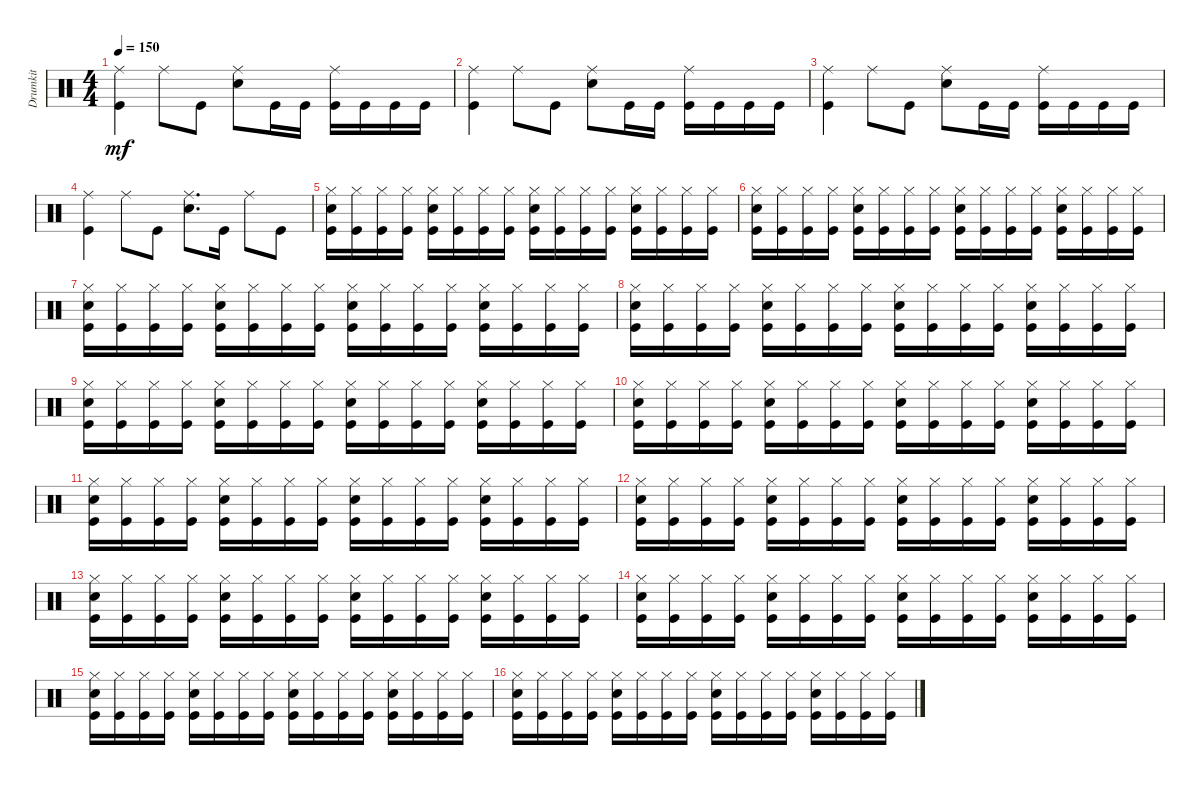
\track ("Drumkit" "Drumkit") {instrument percussion}
\staff {score}
\articulation defaults
\ts (4 4)
\tempo 150
\clef neutral
\ks c
("Ride (middle)" "Kick (hit)").4{dy mf} "Ride (middle)".8 "Kick (hit)".8 ("Ride (middle)" "Snare (hit) 2").8 "Kick (hit)".16 "Kick (hit)".16 ("Ride (middle)" "Kick (hit)").16 "Kick (hit)".16 "Kick (hit)".16 "Kick (hit)".16 |
("Ride (middle)" "Kick (hit)").4 "Ride (middle)".8 "Kick (hit)".8 ("Ride (middle)" "Snare (hit) 2").8 "Kick (hit)".16 "Kick (hit)".16 ("Ride (middle)" "Kick (hit)").16 "Kick (hit)".16 "Kick (hit)".16 "Kick (hit)".16 |
("Ride (middle)" "Kick (hit)").4 "Ride (middle)".8 "Kick (hit)".8 ("Ride (middle)" "Snare (hit) 2").8 "Kick (hit)".16 "Kick (hit)".16 ("Ride (middle)" "Kick (hit)").16 "Kick (hit)".16 "Kick (hit)".16 "Kick (hit)".16 |
("Ride (middle)" "Kick (hit)").4 "Ride (middle)".8 "Kick (hit)".8 ("Ride (middle)" "Snare (hit) 2").8{d} "Kick (hit)".16 "Ride (middle)".8 "Kick (hit)".8 |
("Kick (hit)" "Snare (hit) 2" "Hi-Hat (closed)").16 ("Kick (hit)" "Hi-Hat (closed)").16 ("Kick (hit)" "Hi-Hat (closed)").16 ("Kick (hit)" "Hi-Hat (closed)").16 ("Kick (hit)" "Snare (hit) 2" "Hi-Hat (closed)").16 ("Kick (hit)" "Hi-Hat (closed)").16 ("Kick (hit)" "Hi-Hat (closed)").16 ("Kick (hit)" "Hi-Hat (closed)").16 ("Kick (hit)" "Snare (hit) 2" "Hi-Hat (closed)").16 ("Kick (hit)" "Hi-Hat (closed)").16 ("Kick (hit)" "Hi-Hat (closed)").16 ("Kick (hit)" "Hi-Hat (closed)").16 ("Kick (hit)" "Snare (hit) 2" "Hi-Hat (closed)").16 ("Kick (hit)" "Hi-Hat (closed)").16 ("Kick (hit)" "Hi-Hat (closed)").16 ("Kick (hit)" "Hi-Hat (closed)").16 |
("Kick (hit)" "Snare (hit) 2" "Hi-Hat (closed)").16 ("Kick (hit)" "Hi-Hat (closed)").16 ("Kick (hit)" "Hi-Hat (closed)").16 ("Kick (hit)" "Hi-Hat (closed)").16 ("Kick (hit)" "Snare (hit) 2" "Hi-Hat (closed)").16 ("Kick (hit)" "Hi-Hat (closed)").16 ("Kick (hit)" "Hi-Hat (closed)").16 ("Kick (hit)" "Hi-Hat (closed)").16 ("Kick (hit)" "Snare (hit) 2" "Hi-Hat (closed)").16 ("Kick (hit)" "Hi-Hat (closed)").16 ("Kick (hit)" "Hi-Hat (closed)").16 ("Kick (hit)" "Hi-Hat (closed)").16 ("Kick (hit)" "Snare (hit) 2" "Hi-Hat (closed)").16 ("Kick (hit)" "Hi-Hat (closed)").16 ("Kick (hit)" "Hi-Hat (closed)").16 ("Kick (hit)" "Hi-Hat (closed)").16 |
("Kick (hit)" "Snare (hit) 2" "Hi-Hat (closed)").16 ("Kick (hit)" "Hi-Hat (closed)").16 ("Kick (hit)" "Hi-Hat (closed)").16 ("Kick (hit)" "Hi-Hat (closed)").16 ("Kick (hit)" "Snare (hit) 2" "Hi-Hat (closed)").16 ("Kick (hit)" "Hi-Hat (closed)").16 ("Kick (hit)" "Hi-Hat (closed)").16 ("Kick (hit)" "Hi-Hat (closed)").16 ("Kick (hit)" "Snare (hit) 2" "Hi-Hat (closed)").16 ("Kick (hit)" "Hi-Hat (closed)").16 ("Kick (hit)" "Hi-Hat (closed)").16 ("Kick (hit)" "Hi-Hat (closed)").16 ("Kick (hit)" "Snare (hit) 2" "Hi-Hat (closed)").16 ("Kick (hit)" "Hi-Hat (closed)").16 ("Kick (hit)" "Hi-Hat (closed)").16 ("Kick (hit)" "Hi-Hat (closed)").16 |
("Kick (hit)" "Snare (hit) 2" "Hi-Hat (closed)").16 ("Kick (hit)" "Hi-Hat (closed)").16 ("Kick (hit)" "Hi-Hat (closed)").16 ("Kick (hit)" "Hi-Hat (closed)").16 ("Kick (hit)" "Snare (hit) 2" "Hi-Hat (closed)").16 ("Kick (hit)" "Hi-Hat (closed)").16 ("Kick (hit)" "Hi-Hat (closed)").16 ("Kick (hit)" "Hi-Hat (closed)").16 ("Kick (hit)" "Snare (hit) 2" "Hi-Hat (closed)").16 ("Kick (hit)" "Hi-Hat (closed)").16 ("Kick (hit)" "Hi-Hat (closed)").16 ("Kick (hit)" "Hi-Hat (closed)").16 ("Kick (hit)" "Snare (hit) 2" "Hi-Hat (closed)").16 ("Kick (hit)" "Hi-Hat (closed)").16 ("Kick (hit)" "Hi-Hat (closed)").16 ("Kick (hit)" "Hi-Hat (closed)").16 |
("Kick (hit)" "Snare (hit) 2" "Hi-Hat (closed)").16 ("Kick (hit)" "Hi-Hat (closed)").16 ("Kick (hit)" "Hi-Hat (closed)").16 ("Kick (hit)" "Hi-Hat (closed)").16 ("Kick (hit)" "Snare (hit) 2" "Hi-Hat (closed)").16 ("Kick (hit)" "Hi-Hat (closed)").16 ("Kick (hit)" "Hi-Hat (closed)").16 ("Kick (hit)" "Hi-Hat (closed)").16 ("Kick (hit)" "Snare (hit) 2" "Hi-Hat (closed)").16 ("Kick (hit)" "Hi-Hat (closed)").16 ("Kick (hit)" "Hi-Hat (closed)").16 ("Kick (hit)" "Hi-Hat (closed)").16 ("Kick (hit)" "Snare (hit) 2" "Hi-Hat (closed)").16 ("Kick (hit)" "Hi-Hat (closed)").16 ("Kick (hit)" "Hi-Hat (closed)").16 ("Kick (hit)" "Hi-Hat (closed)").16 |
("Kick (hit)" "Snare (hit) 2" "Hi-Hat (closed)").16 ("Kick (hit)" "Hi-Hat (closed)").16 ("Kick (hit)" "Hi-Hat (closed)").16 ("Kick (hit)" "Hi-Hat (closed)").16 ("Kick (hit)" "Snare (hit) 2" "Hi-Hat (closed)").16 ("Kick (hit)" "Hi-Hat (closed)").16 ("Kick (hit)" "Hi-Hat (closed)").16 ("Kick (hit)" "Hi-Hat (closed)").16 ("Kick (hit)" "Snare (hit) 2" "Hi-Hat (closed)").16 ("Kick (hit)" "Hi-Hat (closed)").16 ("Kick (hit)" "Hi-Hat (closed)").16 ("Kick (hit)" "Hi-Hat (closed)").16 ("Kick (hit)" "Snare (hit) 2" "Hi-Hat (closed)").16 ("Kick (hit)" "Hi-Hat (closed)").16 ("Kick (hit)" "Hi-Hat (closed)").16 ("Kick (hit)" "Hi-Hat (closed)").16 |
("Kick (hit)" "Snare (hit) 2" "Hi-Hat (closed)").16 ("Kick (hit)" "Hi-Hat (closed)").16 ("Kick (hit)" "Hi-Hat (closed)").16 ("Kick (hit)" "Hi-Hat (closed)").16 ("Kick (hit)" "Snare (hit) 2" "Hi-Hat (closed)").16 ("Kick (hit)" "Hi-Hat (closed)").16 ("Kick (hit)" "Hi-Hat (closed)").16 ("Kick (hit)" "Hi-Hat (closed)").16 ("Kick (hit)" "Snare (hit) 2" "Hi-Hat (closed)").16 ("Kick (hit)" "Hi-Hat (closed)").16 ("Kick (hit)" "Hi-Hat (closed)").16 ("Kick (hit)" "Hi-Hat (closed)").16 ("Kick (hit)" "Snare (hit) 2" "Hi-Hat (closed)").16 ("Kick (hit)" "Hi-Hat (closed)").16 ("Kick (hit)" "Hi-Hat (closed)").16 ("Kick (hit)" "Hi-Hat (closed)").16 |
("Kick (hit)" "Snare (hit) 2" "Hi-Hat (closed)").16 ("Kick (hit)" "Hi-Hat (closed)").16 ("Kick (hit)" "Hi-Hat (closed)").16 ("Kick (hit)" "Hi-Hat (closed)").16 ("Kick (hit)" "Snare (hit) 2" "Hi-Hat (closed)").16 ("Kick (hit)" "Hi-Hat (closed)").16 ("Kick (hit)" "Hi-Hat (closed)").16 ("Kick (hit)" "Hi-Hat (closed)").16 ("Kick (hit)" "Snare (hit) 2" "Hi-Hat (closed)").16 ("Kick (hit)" "Hi-Hat (closed)").16 ("Kick (hit)" "Hi-Hat (closed)").16 ("Kick (hit)" "Hi-Hat (closed)").16 ("Kick (hit)" "Snare (hit) 2" "Hi-Hat (closed)").16 ("Kick (hit)" "Hi-Hat (closed)").16 ("Kick (hit)" "Hi-Hat (closed)").16 ("Kick (hit)" "Hi-Hat (closed)").16 |
("Kick (hit)" "Snare (hit) 2" "Hi-Hat (closed)").16 ("Kick (hit)" "Hi-Hat (closed)").16 ("Kick (hit)" "Hi-Hat (closed)").16 ("Kick (hit)" "Hi-Hat (closed)").16 ("Kick (hit)" "Snare (hit) 2" "Hi-Hat (closed)").16 ("Kick (hit)" "Hi-Hat (closed)").16 ("Kick (hit)" "Hi-Hat (closed)").16 ("Kick (hit)" "Hi-Hat (closed)").16 ("Kick (hit)" "Snare (hit) 2" "Hi-Hat (closed)").16 ("Kick (hit)" "Hi-Hat (closed)").16 ("Kick (hit)" "Hi-Hat (closed)").16 ("Kick (hit)" "Hi-Hat (closed)").16 ("Kick (hit)" "Snare (hit) 2" "Hi-Hat (closed)").16 ("Kick (hit)" "Hi-Hat (closed)").16 ("Kick (hit)" "Hi-Hat (closed)").16 ("Kick (hit)" "Hi-Hat (closed)").16 |
("Kick (hit)" "Snare (hit) 2" "Hi-Hat (closed)").16 ("Kick (hit)" "Hi-Hat (closed)").16 ("Kick (hit)" "Hi-Hat (closed)").16 ("Kick (hit)" "Hi-Hat (closed)").16 ("Kick (hit)" "Snare (hit) 2" "Hi-Hat (closed)").16 ("Kick (hit)" "Hi-Hat (closed)").16 ("Kick (hit)" "Hi-Hat (closed)").16 ("Kick (hit)" "Hi-Hat (closed)").16 ("Kick (hit)" "Snare (hit) 2" "Hi-Hat (closed)").16 ("Kick (hit)" "Hi-Hat (closed)").16 ("Kick (hit)" "Hi-Hat (closed)").16 ("Kick (hit)" "Hi-Hat (closed)").16 ("Kick (hit)" "Snare (hit) 2" "Hi-Hat (closed)").16 ("Kick (hit)" "Hi-Hat (closed)").16 ("Kick (hit)" "Hi-Hat (closed)").16 ("Kick (hit)" "Hi-Hat (closed)").16 |
("Kick (hit)" "Snare (hit) 2" "Hi-Hat (closed)").16 ("Kick (hit)" "Hi-Hat (closed)").16 ("Kick (hit)" "Hi-Hat (closed)").16 ("Kick (hit)" "Hi-Hat (closed)").16 ("Kick (hit)" "Snare (hit) 2" "Hi-Hat (closed)").16 ("Kick (hit)" "Hi-Hat (closed)").16 ("Kick (hit)" "Hi-Hat (closed)").16 ("Kick (hit)" "Hi-Hat (closed)").16 ("Kick (hit)" "Snare (hit) 2" "Hi-Hat (closed)").16 ("Kick (hit)" "Hi-Hat (closed)").16 ("Kick (hit)" "Hi-Hat (closed)").16 ("Kick (hit)" "Hi-Hat (closed)").16 ("Kick (hit)" "Snare (hit) 2" "Hi-Hat (closed)").16 ("Kick (hit)" "Hi-Hat (closed)").16 ("Kick (hit)" "Hi-Hat (closed)").16 ("Kick (hit)" "Hi-Hat (closed)").16 |
("Kick (hit)" "Snare (hit) 2" "Hi-Hat (closed)").16 ("Kick (hit)" "Hi-Hat (closed)").16 ("Kick (hit)" "Hi-Hat (closed)").16 ("Kick (hit)" "Hi-Hat (closed)").16 ("Kick (hit)" "Snare (hit) 2" "Hi-Hat (closed)").16 ("Kick (hit)" "Hi-Hat (closed)").16 ("Kick (hit)" "Hi-Hat (closed)").16 ("Kick (hit)" "Hi-Hat (closed)").16 ("Kick (hit)" "Snare (hit) 2" "Hi-Hat (closed)").16 ("Kick (hit)" "Hi-Hat (closed)").16 ("Kick (hit)" "Hi-Hat (closed)").16 ("Kick (hit)" "Hi-Hat (closed)").16 ("Kick (hit)" "Snare (hit) 2" "Hi-Hat (closed)").16 ("Kick (hit)" "Hi-Hat (closed)").16 ("Kick (hit)" "Hi-Hat (closed)").16 ("Kick (hit)" "Hi-Hat (closed)").16
